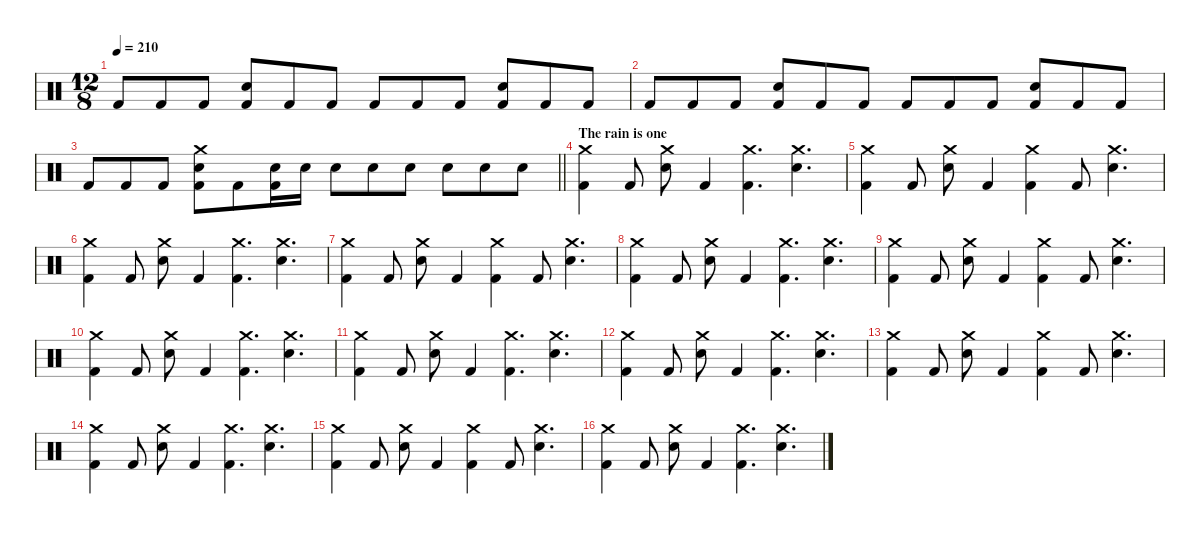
\defaultSystemsLayout 4
\hideDynamics
\bracketExtendMode nobrackets
\singleTrackTrackNamePolicy hidden
\multiTrackTrackNamePolicy hidden
\firstSystemTrackNameMode fullname
\firstSystemTrackNameOrientation horizontal
\otherSystemsTrackNameOrientation horizontal
\track ("Beats" "drm.") {instrument percussion}
\staff {score}
\articulation defaults
\ts (12 8)
\tempo 210
\clef neutral
\ks c "Kick (hit) 2".8{dy f} "Kick (hit) 2".8 "Kick (hit) 2".8
("Snare (hit) 2" "Kick (hit) 2").8{dy ff} "Kick (hit) 2".8{dy f} "Kick (hit) 2".8 "Kick (hit) 2".8 "Kick (hit) 2".8 "Kick (hit) 2".8 ("Snare (hit) 2" "Kick (hit) 2").8{dy ff} "Kick (hit) 2".8{dy f} "Kick (hit) 2".8 |
"Kick (hit) 2".8 "Kick (hit) 2".8 "Kick (hit) 2".8 ("Snare (hit) 2" "Kick (hit) 2").8{dy ff} "Kick (hit) 2".8{dy f} "Kick (hit) 2".8 "Kick (hit) 2".8 "Kick (hit) 2".8 "Kick (hit) 2".8 ("Snare (hit) 2" "Kick (hit) 2").8{dy ff} "Kick (hit) 2".8{dy f} "Kick (hit) 2".8 |
\barLineRight lightlight "Kick (hit) 2".8 "Kick (hit) 2".8 "Kick (hit) 2".8
("Crash medium (hit)" "Snare (hit) 2" "Kick (hit) 2").8 "Kick (hit) 2".8 ("Snare (hit) 2" "Kick (hit) 2").16{dy fff} "Snare (hit) 2".16 "Snare (hit) 2".8 "Snare (hit) 2".8{dy f} "Snare (hit) 2".8 "Snare (hit) 2".8{dy fff} "Snare (hit) 2".8{dy f} "Snare (hit) 2".8 |
\section ("" "The rain is one")
("Crash medium (hit)" "Kick (hit) 2").4 "Kick (hit) 2".8 ("Crash medium (hit)" "Snare (hit) 2").8 "Kick (hit) 2".4 ("Crash medium (hit)" "Kick (hit) 2").4{d} ("Crash medium (hit)" "Snare (hit) 2").4{d} |
("Crash medium (hit)" "Kick (hit) 2").4 "Kick (hit) 2".8 ("Crash medium (hit)" "Snare (hit) 2").8 "Kick (hit) 2".4 ("Crash medium (hit)" "Kick (hit) 2").4 "Kick (hit) 2".8 ("Crash medium (hit)" "Snare (hit) 2").4{d} |
("Crash medium (hit)" "Kick (hit) 2").4 "Kick (hit) 2".8 ("Crash medium (hit)" "Snare (hit) 2").8 "Kick (hit) 2".4 ("Crash medium (hit)" "Kick (hit) 2").4{d} ("Crash medium (hit)" "Snare (hit) 2").4{d} |
("Crash medium (hit)" "Kick (hit) 2").4 "Kick (hit) 2".8 ("Crash medium (hit)" "Snare (hit) 2").8 "Kick (hit) 2".4 ("Crash medium (hit)" "Kick (hit) 2").4 "Kick (hit) 2".8 ("Crash medium (hit)" "Snare (hit) 2").4{d} |
("Crash medium (hit)" "Kick (hit) 2").4 "Kick (hit) 2".8 ("Crash medium (hit)" "Snare (hit) 2").8 "Kick (hit) 2".4 ("Crash medium (hit)" "Kick (hit) 2").4{d} ("Crash medium (hit)" "Snare (hit) 2").4{d} |
("Crash medium (hit)" "Kick (hit) 2").4 "Kick (hit) 2".8 ("Crash medium (hit)" "Snare (hit) 2").8 "Kick (hit) 2".4 ("Crash medium (hit)" "Kick (hit) 2").4 "Kick (hit) 2".8 ("Crash medium (hit)" "Snare (hit) 2").4{d} |
("Crash medium (hit)" "Kick (hit) 2").4 "Kick (hit) 2".8 ("Crash medium (hit)" "Snare (hit) 2").8 "Kick (hit) 2".4 ("Crash medium (hit)" "Kick (hit) 2").4{d} ("Crash medium (hit)" "Snare (hit) 2").4{d} |
("Crash medium (hit)" "Kick (hit) 2").4 "Kick (hit) 2".8 ("Crash medium (hit)" "Snare (hit) 2").8 "Kick (hit) 2".4 ("Crash medium (hit)" "Kick (hit) 2").4{d} ("Crash medium (hit)" "Snare (hit) 2").4{d} |
("Crash medium (hit)" "Kick (hit) 2").4 "Kick (hit) 2".8 ("Crash medium (hit)" "Snare (hit) 2").8 "Kick (hit) 2".4 ("Crash medium (hit)" "Kick (hit) 2").4{d} ("Crash medium (hit)" "Snare (hit) 2").4{d} |
("Crash medium (hit)" "Kick (hit) 2").4 "Kick (hit) 2".8 ("Crash medium (hit)" "Snare (hit) 2").8 "Kick (hit) 2".4 ("Crash medium (hit)" "Kick (hit) 2").4 "Kick (hit) 2".8 ("Crash medium (hit)" "Snare (hit) 2").4{d} |
("Crash medium (hit)" "Kick (hit) 2").4 "Kick (hit) 2".8 ("Crash medium (hit)" "Snare (hit) 2").8 "Kick (hit) 2".4 ("Crash medium (hit)" "Kick (hit) 2").4{d} ("Crash medium (hit)" "Snare (hit) 2").4{d} |
("Crash medium (hit)" "Kick (hit) 2").4 "Kick (hit) 2".8 ("Crash medium (hit)" "Snare (hit) 2").8 "Kick (hit) 2".4 ("Crash medium (hit)" "Kick (hit) 2").4 "Kick (hit) 2".8 ("Crash medium (hit)" "Snare (hit) 2").4{d} |
("Crash medium (hit)" "Kick (hit) 2").4 "Kick (hit) 2".8 ("Crash medium (hit)" "Snare (hit) 2").8 "Kick (hit) 2".4 ("Crash medium (hit)" "Kick (hit) 2").4{d} ("Crash medium (hit)" "Snare (hit) 2").4{d}
